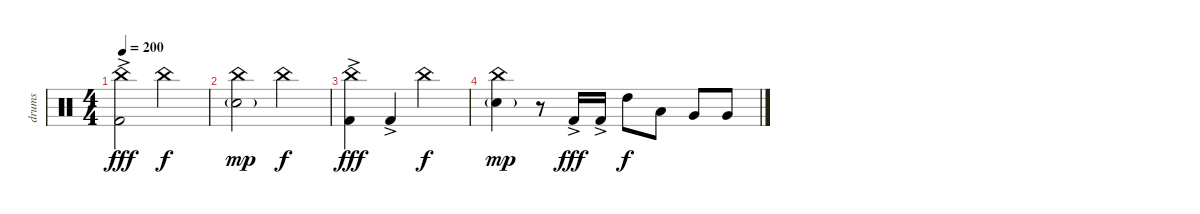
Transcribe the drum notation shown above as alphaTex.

\track ("drums" "drums") {instrument percussion}
\staff {score}
\articulation defaults
\ts (4 4)
\tempo 200
\clef neutral
\ks c
("China (hit)" "Kick (hit) 2"{ac}).2{dy fff} "China (hit)".2{dy f} |
("China (hit)" "Snare (hit) 2"{g}).2{dy mp} "China (hit)".2{dy f} |
("China (hit)" "Kick (hit) 2"{ac}).4{dy fff} "Kick (hit) 2"{ac}.4 "China (hit)".2{dy f} |
("China (hit)" "Snare (hit) 2"{g}).4{dy mp} r.8 "Kick (hit) 2"{ac}.16{dy fff} "Kick (hit) 2"{ac}.16 "High Tom (hit)".8{dy f} "Low Tom (hit)".8 "Very Low Tom (hit)".8 "Very Low Tom (hit)".8
